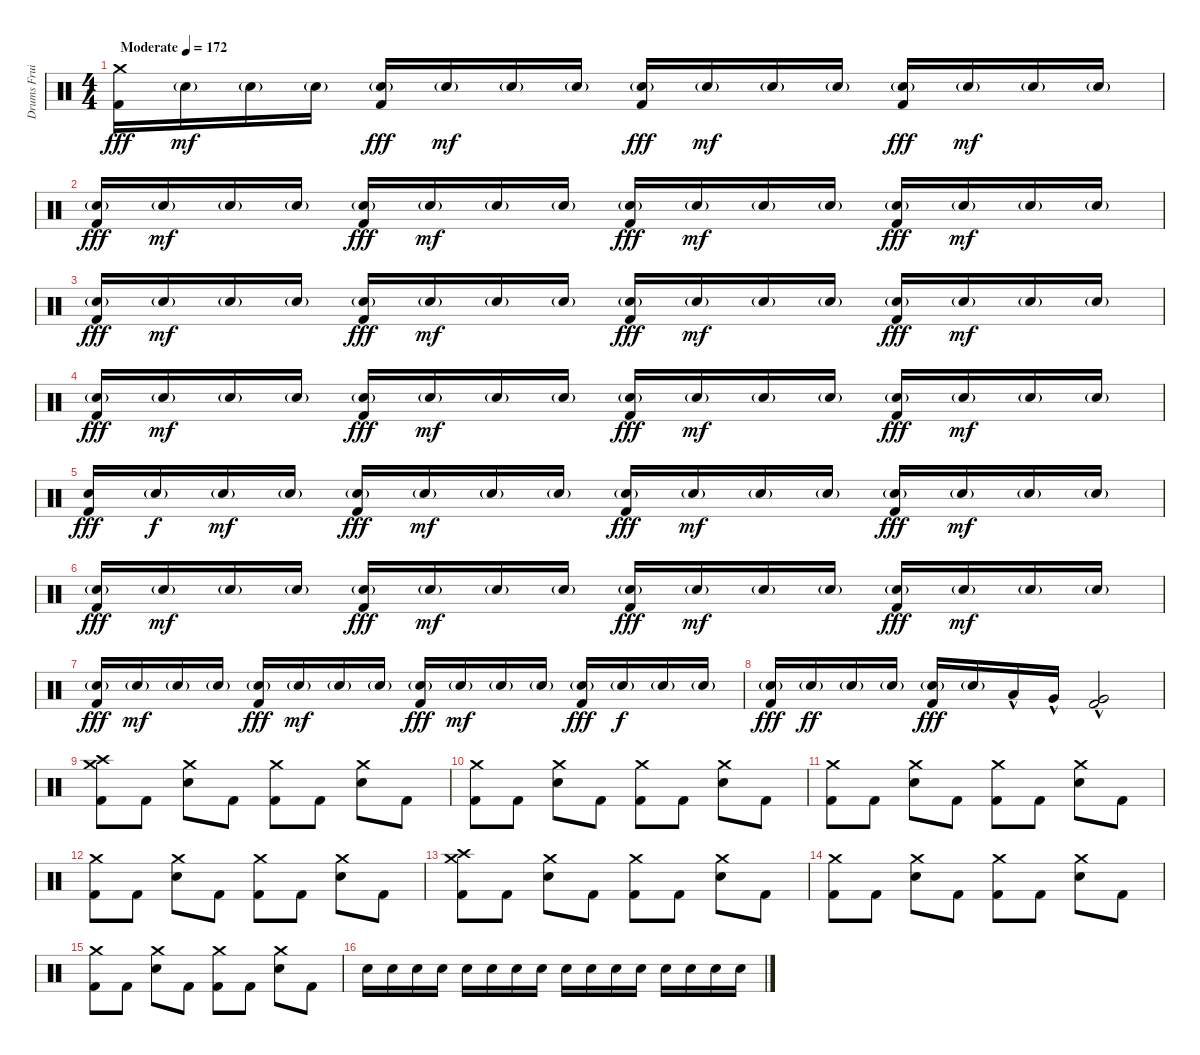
\track ("Drums Fruity Lexia" "Drums Frui") {instrument percussion}
\staff {score}
\articulation defaults
\ts (4 4)
\tempo (172 "Moderate")
\clef neutral
\ks c
("Crash medium (hit)" "Kick (hit) 2").16{dy fff} "Electric Snare (hit)"{g}.16{dy mf} "Electric Snare (hit)"{g}.16 "Electric Snare (hit)"{g}.16 ("Electric Snare (hit)"{g} "Kick (hit) 2").16{dy fff} "Electric Snare (hit)"{g}.16{dy mf} "Electric Snare (hit)"{g}.16 "Electric Snare (hit)"{g}.16 ("Electric Snare (hit)"{g} "Kick (hit) 2").16{dy fff} "Electric Snare (hit)"{g}.16{dy mf} "Electric Snare (hit)"{g}.16 "Electric Snare (hit)"{g}.16 ("Electric Snare (hit)"{g} "Kick (hit) 2").16{dy fff} "Electric Snare (hit)"{g}.16{dy mf} "Electric Snare (hit)"{g}.16 "Electric Snare (hit)"{g}.16 |
("Electric Snare (hit)"{g} "Kick (hit) 2").16{dy fff} "Electric Snare (hit)"{g}.16{dy mf} "Electric Snare (hit)"{g}.16 "Electric Snare (hit)"{g}.16 ("Electric Snare (hit)"{g} "Kick (hit) 2").16{dy fff} "Electric Snare (hit)"{g}.16{dy mf} "Electric Snare (hit)"{g}.16 "Electric Snare (hit)"{g}.16 ("Electric Snare (hit)"{g} "Kick (hit) 2").16{dy fff} "Electric Snare (hit)"{g}.16{dy mf} "Electric Snare (hit)"{g}.16 "Electric Snare (hit)"{g}.16 ("Electric Snare (hit)"{g} "Kick (hit) 2").16{dy fff} "Electric Snare (hit)"{g}.16{dy mf} "Electric Snare (hit)"{g}.16 "Electric Snare (hit)"{g}.16 |
("Electric Snare (hit)"{g} "Kick (hit) 2").16{dy fff} "Electric Snare (hit)"{g}.16{dy mf} "Electric Snare (hit)"{g}.16 "Electric Snare (hit)"{g}.16 ("Electric Snare (hit)"{g} "Kick (hit) 2").16{dy fff} "Electric Snare (hit)"{g}.16{dy mf} "Electric Snare (hit)"{g}.16 "Electric Snare (hit)"{g}.16 ("Electric Snare (hit)"{g} "Kick (hit) 2").16{dy fff} "Electric Snare (hit)"{g}.16{dy mf} "Electric Snare (hit)"{g}.16 "Electric Snare (hit)"{g}.16 ("Electric Snare (hit)"{g} "Kick (hit) 2").16{dy fff} "Electric Snare (hit)"{g}.16{dy mf} "Electric Snare (hit)"{g}.16 "Electric Snare (hit)"{g}.16 |
("Electric Snare (hit)"{g} "Kick (hit) 2").16{dy fff} "Electric Snare (hit)"{g}.16{dy mf} "Electric Snare (hit)"{g}.16 "Electric Snare (hit)"{g}.16 ("Electric Snare (hit)"{g} "Kick (hit) 2").16{dy fff} "Electric Snare (hit)"{g}.16{dy mf} "Electric Snare (hit)"{g}.16 "Electric Snare (hit)"{g}.16 ("Electric Snare (hit)"{g} "Kick (hit) 2").16{dy fff} "Electric Snare (hit)"{g}.16{dy mf} "Electric Snare (hit)"{g}.16 "Electric Snare (hit)"{g}.16 ("Electric Snare (hit)"{g} "Kick (hit) 2").16{dy fff} "Electric Snare (hit)"{g}.16{dy mf} "Electric Snare (hit)"{g}.16 "Electric Snare (hit)"{g}.16 |
("Electric Snare (hit)" "Kick (hit) 2").16{dy fff} "Electric Snare (hit)"{g}.16{dy f} "Electric Snare (hit)"{g}.16{dy mf} "Electric Snare (hit)"{g}.16 ("Electric Snare (hit)"{g} "Kick (hit) 2").16{dy fff} "Electric Snare (hit)"{g}.16{dy mf} "Electric Snare (hit)"{g}.16 "Electric Snare (hit)"{g}.16 ("Electric Snare (hit)"{g} "Kick (hit) 2").16{dy fff} "Electric Snare (hit)"{g}.16{dy mf} "Electric Snare (hit)"{g}.16 "Electric Snare (hit)"{g}.16 ("Electric Snare (hit)"{g} "Kick (hit) 2").16{dy fff} "Electric Snare (hit)"{g}.16{dy mf} "Electric Snare (hit)"{g}.16 "Electric Snare (hit)"{g}.16 |
("Electric Snare (hit)"{g} "Kick (hit) 2").16{dy fff} "Electric Snare (hit)"{g}.16{dy mf} "Electric Snare (hit)"{g}.16 "Electric Snare (hit)"{g}.16 ("Electric Snare (hit)"{g} "Kick (hit) 2").16{dy fff} "Electric Snare (hit)"{g}.16{dy mf} "Electric Snare (hit)"{g}.16 "Electric Snare (hit)"{g}.16 ("Electric Snare (hit)"{g} "Kick (hit) 2").16{dy fff} "Electric Snare (hit)"{g}.16{dy mf} "Electric Snare (hit)"{g}.16 "Electric Snare (hit)"{g}.16 ("Electric Snare (hit)"{g} "Kick (hit) 2").16{dy fff} "Electric Snare (hit)"{g}.16{dy mf} "Electric Snare (hit)"{g}.16 "Electric Snare (hit)"{g}.16 |
("Electric Snare (hit)"{g} "Kick (hit) 2").16{dy fff} "Electric Snare (hit)"{g}.16{dy mf} "Electric Snare (hit)"{g}.16 "Electric Snare (hit)"{g}.16 ("Electric Snare (hit)"{g} "Kick (hit) 2").16{dy fff} "Electric Snare (hit)"{g}.16{dy mf} "Electric Snare (hit)"{g}.16 "Electric Snare (hit)"{g}.16 ("Electric Snare (hit)"{g} "Kick (hit) 2").16{dy fff} "Electric Snare (hit)"{g}.16{dy mf} "Electric Snare (hit)"{g}.16 "Electric Snare (hit)"{g}.16 ("Electric Snare (hit)"{g} "Kick (hit) 2").16{dy fff} "Electric Snare (hit)"{g}.16{dy f} "Electric Snare (hit)"{g}.16 "Electric Snare (hit)"{g}.16 |
("Electric Snare (hit)"{g} "Kick (hit) 2").16{dy fff} "Electric Snare (hit)"{g}.16{dy ff} "Electric Snare (hit)"{g}.16 "Electric Snare (hit)"{g}.16 ("Electric Snare (hit)"{g} "Kick (hit) 2").16{dy fff} "Electric Snare (hit)"{g}.16 "Low Tom (hit)"{hac}.16 "Very Low Tom (hit)"{hac}.16 ("Very Low Tom (hit)"{hac} "Kick (hit) 2").2 |
("Crash high (hit)" "Crash medium (hit)" "Kick (hit) 2").8 "Kick (hit) 2".8 ("Crash medium (hit)" "Electric Snare (hit)").8 "Kick (hit) 2".8 ("Crash medium (hit)" "Kick (hit) 2").8 "Kick (hit) 2".8 ("Crash medium (hit)" "Electric Snare (hit)").8 "Kick (hit) 2".8 |
("Crash medium (hit)" "Kick (hit) 2").8 "Kick (hit) 2".8 ("Crash medium (hit)" "Electric Snare (hit)").8 "Kick (hit) 2".8 ("Crash medium (hit)" "Kick (hit) 2").8 "Kick (hit) 2".8 ("Crash medium (hit)" "Electric Snare (hit)").8 "Kick (hit) 2".8 |
("Crash medium (hit)" "Kick (hit) 2").8 "Kick (hit) 2".8 ("Crash medium (hit)" "Electric Snare (hit)").8 "Kick (hit) 2".8 ("Crash medium (hit)" "Kick (hit) 2").8 "Kick (hit) 2".8 ("Crash medium (hit)" "Electric Snare (hit)").8 "Kick (hit) 2".8 |
("Crash medium (hit)" "Kick (hit) 2").8 "Kick (hit) 2".8 ("Crash medium (hit)" "Electric Snare (hit)").8 "Kick (hit) 2".8 ("Crash medium (hit)" "Kick (hit) 2").8 "Kick (hit) 2".8 ("Crash medium (hit)" "Electric Snare (hit)").8 "Kick (hit) 2".8 |
("Crash high (hit)" "Crash medium (hit)" "Kick (hit) 2").8 "Kick (hit) 2".8 ("Crash medium (hit)" "Electric Snare (hit)").8 "Kick (hit) 2".8 ("Crash medium (hit)" "Kick (hit) 2").8 "Kick (hit) 2".8 ("Crash medium (hit)" "Electric Snare (hit)").8 "Kick (hit) 2".8 |
("Crash medium (hit)" "Kick (hit) 2").8 "Kick (hit) 2".8 ("Crash medium (hit)" "Electric Snare (hit)").8 "Kick (hit) 2".8 ("Crash medium (hit)" "Kick (hit) 2").8 "Kick (hit) 2".8 ("Crash medium (hit)" "Electric Snare (hit)").8 "Kick (hit) 2".8 |
("Crash medium (hit)" "Kick (hit) 2").8 "Kick (hit) 2".8 ("Crash medium (hit)" "Electric Snare (hit)").8 "Kick (hit) 2".8 ("Crash medium (hit)" "Kick (hit) 2").8 "Kick (hit) 2".8 ("Crash medium (hit)" "Electric Snare (hit)").8 "Kick (hit) 2".8 |
"Electric Snare (hit)".16 "Electric Snare (hit)".16 "Electric Snare (hit)".16 "Electric Snare (hit)".16 "Electric Snare (hit)".16 "Electric Snare (hit)".16 "Electric Snare (hit)".16 "Electric Snare (hit)".16 "Electric Snare (hit)".16 "Electric Snare (hit)".16 "Electric Snare (hit)".16 "Electric Snare (hit)".16 "Electric Snare (hit)".16 "Electric Snare (hit)".16 "Electric Snare (hit)".16 "Electric Snare (hit)".16
